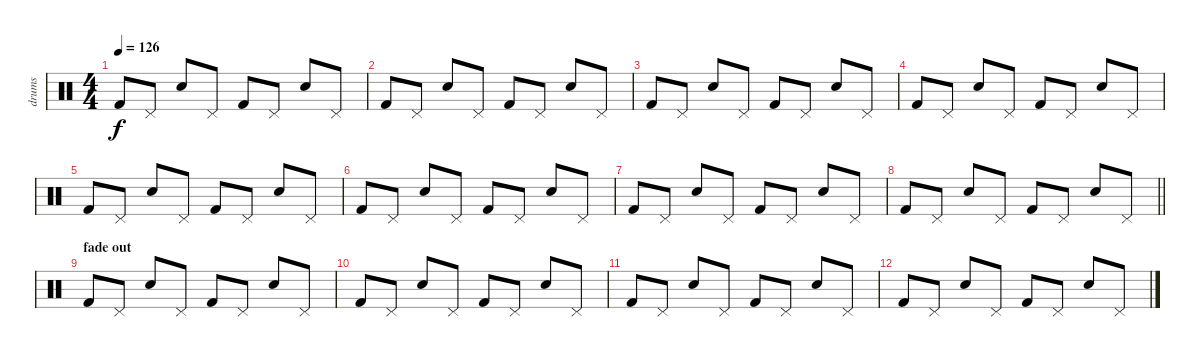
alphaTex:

\track ("drums" "drums") {instrument percussion}
\staff {score}
\articulation defaults
\ts (4 4)
\tempo 126
\clef neutral
\ks c "Kick (hit) 2".8{dy f} "Pedal Hi-Hat (hit)".8 "Hand Clap (hit)".8 "Pedal Hi-Hat (hit)".8 "Kick (hit) 2".8 "Pedal Hi-Hat (hit)".8 "Hand Clap (hit)".8 "Pedal Hi-Hat (hit)".8
|
"Kick (hit) 2".8 "Pedal Hi-Hat (hit)".8 "Hand Clap (hit)".8 "Pedal Hi-Hat (hit)".8 "Kick (hit) 2".8 "Pedal Hi-Hat (hit)".8 "Hand Clap (hit)".8 "Pedal Hi-Hat (hit)".8 |
"Kick (hit) 2".8 "Pedal Hi-Hat (hit)".8 "Hand Clap (hit)".8 "Pedal Hi-Hat (hit)".8 "Kick (hit) 2".8 "Pedal Hi-Hat (hit)".8 "Hand Clap (hit)".8 "Pedal Hi-Hat (hit)".8 |
"Kick (hit) 2".8 "Pedal Hi-Hat (hit)".8 "Hand Clap (hit)".8 "Pedal Hi-Hat (hit)".8 "Kick (hit) 2".8 "Pedal Hi-Hat (hit)".8 "Hand Clap (hit)".8 "Pedal Hi-Hat (hit)".8 |
"Kick (hit) 2".8 "Pedal Hi-Hat (hit)".8 "Hand Clap (hit)".8 "Pedal Hi-Hat (hit)".8 "Kick (hit) 2".8 "Pedal Hi-Hat (hit)".8 "Hand Clap (hit)".8 "Pedal Hi-Hat (hit)".8 |
"Kick (hit) 2".8 "Pedal Hi-Hat (hit)".8 "Hand Clap (hit)".8 "Pedal Hi-Hat (hit)".8 "Kick (hit) 2".8 "Pedal Hi-Hat (hit)".8 "Hand Clap (hit)".8 "Pedal Hi-Hat (hit)".8 |
"Kick (hit) 2".8 "Pedal Hi-Hat (hit)".8 "Hand Clap (hit)".8 "Pedal Hi-Hat (hit)".8 "Kick (hit) 2".8 "Pedal Hi-Hat (hit)".8 "Hand Clap (hit)".8 "Pedal Hi-Hat (hit)".8 |
\barLineRight lightlight "Kick (hit) 2".8 "Pedal Hi-Hat (hit)".8 "Hand Clap (hit)".8 "Pedal Hi-Hat (hit)".8 "Kick (hit) 2".8 "Pedal Hi-Hat (hit)".8 "Hand Clap (hit)".8 "Pedal Hi-Hat (hit)".8
|
\section ("" "fade out")
"Kick (hit) 2".8 "Pedal Hi-Hat (hit)".8 "Hand Clap (hit)".8 "Pedal Hi-Hat (hit)".8 "Kick (hit) 2".8 "Pedal Hi-Hat (hit)".8 "Hand Clap (hit)".8 "Pedal Hi-Hat (hit)".8 |
"Kick (hit) 2".8 "Pedal Hi-Hat (hit)".8 "Hand Clap (hit)".8 "Pedal Hi-Hat (hit)".8 "Kick (hit) 2".8 "Pedal Hi-Hat (hit)".8 "Hand Clap (hit)".8 "Pedal Hi-Hat (hit)".8 |
"Kick (hit) 2".8 "Pedal Hi-Hat (hit)".8 "Hand Clap (hit)".8 "Pedal Hi-Hat (hit)".8 "Kick (hit) 2".8 "Pedal Hi-Hat (hit)".8 "Hand Clap (hit)".8 "Pedal Hi-Hat (hit)".8 |
"Kick (hit) 2".8 "Pedal Hi-Hat (hit)".8 "Hand Clap (hit)".8 "Pedal Hi-Hat (hit)".8 "Kick (hit) 2".8 "Pedal Hi-Hat (hit)".8 "Hand Clap (hit)".8 "Pedal Hi-Hat (hit)".8
